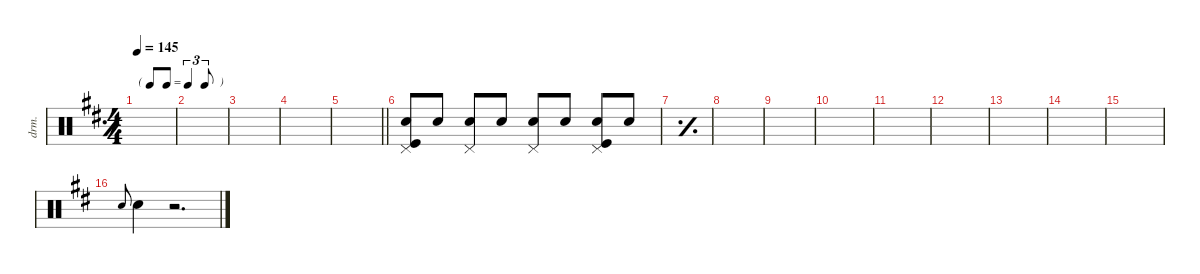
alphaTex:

\defaultSystemsLayout 4
\hideDynamics
\bracketExtendMode nobrackets
\otherSystemsTrackNameOrientation horizontal
\track ("Drumkit" "drm.") {instrument percussion}
\staff {score}
\articulation defaults
\ts (4 4)
\tf triplet8th
\tempo 145
\clef neutral
\simile simple
\ks d
|
|
|
|
\barLineRight lightlight
|
("Snare (hit) 2" "Pedal Hi-Hat (hit)" "Kick (hit)").8 "Snare (hit) 2".8 ("Snare (hit) 2" "Pedal Hi-Hat (hit)").8{dy f} "Snare (hit) 2".8{dy pp} ("Snare (hit) 2" "Pedal Hi-Hat (hit)").8 "Snare (hit) 2".8 ("Snare (hit) 2" "Pedal Hi-Hat (hit)" "Kick (hit)").8{dy f} "Snare (hit) 2".8{dy pp} |
\simile simple
|
|
|
|
|
|
|
|
|
\simile none "Snare (hit) 2".8{gr onbeat dy mf} "Snare (hit) 2".4
r.2{d}
